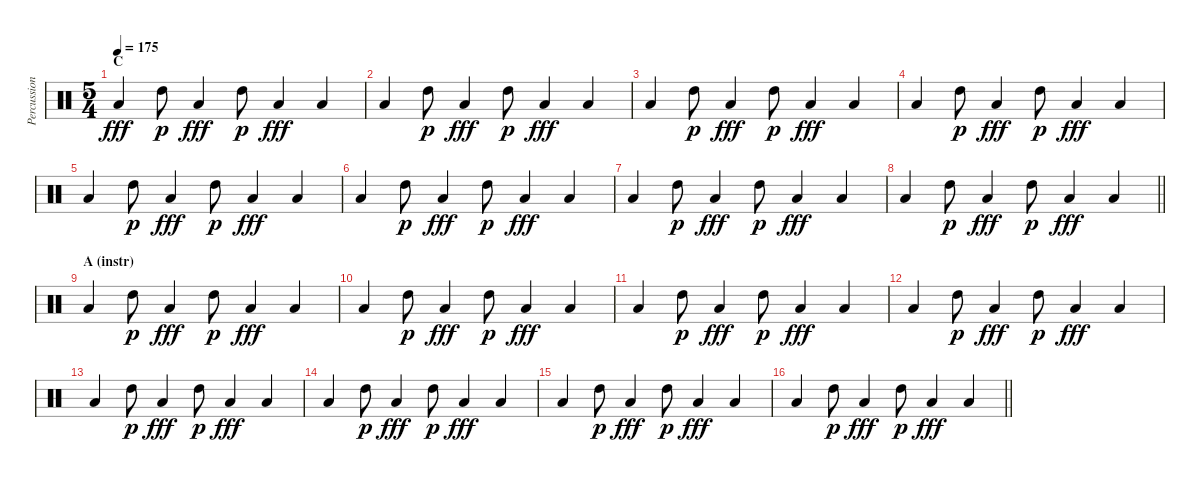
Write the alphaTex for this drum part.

\track ("Percussion" "Percussion") {instrument percussion}
\staff {score}
\articulation defaults
\ts (5 4)
\section ("" "C")
\tempo 175
\clef neutral
\ks c "Low Tom (hit)".4{dy fff} "High Tom (hit)".8{dy p} "Low Tom (hit)".4{dy fff} "High Tom (hit)".8{dy p} "Low Tom (hit)".4{dy fff} "Low Tom (hit)".4
|
"Low Tom (hit)".4 "High Tom (hit)".8{dy p} "Low Tom (hit)".4{dy fff} "High Tom (hit)".8{dy p} "Low Tom (hit)".4{dy fff} "Low Tom (hit)".4 |
"Low Tom (hit)".4 "High Tom (hit)".8{dy p} "Low Tom (hit)".4{dy fff} "High Tom (hit)".8{dy p} "Low Tom (hit)".4{dy fff} "Low Tom (hit)".4 |
"Low Tom (hit)".4 "High Tom (hit)".8{dy p} "Low Tom (hit)".4{dy fff} "High Tom (hit)".8{dy p} "Low Tom (hit)".4{dy fff} "Low Tom (hit)".4 |
"Low Tom (hit)".4 "High Tom (hit)".8{dy p} "Low Tom (hit)".4{dy fff} "High Tom (hit)".8{dy p} "Low Tom (hit)".4{dy fff} "Low Tom (hit)".4 |
"Low Tom (hit)".4 "High Tom (hit)".8{dy p} "Low Tom (hit)".4{dy fff} "High Tom (hit)".8{dy p} "Low Tom (hit)".4{dy fff} "Low Tom (hit)".4 |
"Low Tom (hit)".4 "High Tom (hit)".8{dy p} "Low Tom (hit)".4{dy fff} "High Tom (hit)".8{dy p} "Low Tom (hit)".4{dy fff} "Low Tom (hit)".4 |
\barLineRight lightlight "Low Tom (hit)".4 "High Tom (hit)".8{dy p} "Low Tom (hit)".4{dy fff} "High Tom (hit)".8{dy p} "Low Tom (hit)".4{dy fff} "Low Tom (hit)".4
|
\section ("" "A (instr)")
"Low Tom (hit)".4 "High Tom (hit)".8{dy p} "Low Tom (hit)".4{dy fff} "High Tom (hit)".8{dy p} "Low Tom (hit)".4{dy fff} "Low Tom (hit)".4 |
"Low Tom (hit)".4 "High Tom (hit)".8{dy p} "Low Tom (hit)".4{dy fff} "High Tom (hit)".8{dy p} "Low Tom (hit)".4{dy fff} "Low Tom (hit)".4 |
"Low Tom (hit)".4 "High Tom (hit)".8{dy p} "Low Tom (hit)".4{dy fff} "High Tom (hit)".8{dy p} "Low Tom (hit)".4{dy fff} "Low Tom (hit)".4 |
"Low Tom (hit)".4 "High Tom (hit)".8{dy p} "Low Tom (hit)".4{dy fff} "High Tom (hit)".8{dy p} "Low Tom (hit)".4{dy fff} "Low Tom (hit)".4 |
"Low Tom (hit)".4 "High Tom (hit)".8{dy p} "Low Tom (hit)".4{dy fff} "High Tom (hit)".8{dy p} "Low Tom (hit)".4{dy fff} "Low Tom (hit)".4 |
"Low Tom (hit)".4 "High Tom (hit)".8{dy p} "Low Tom (hit)".4{dy fff} "High Tom (hit)".8{dy p} "Low Tom (hit)".4{dy fff} "Low Tom (hit)".4 |
"Low Tom (hit)".4 "High Tom (hit)".8{dy p} "Low Tom (hit)".4{dy fff} "High Tom (hit)".8{dy p} "Low Tom (hit)".4{dy fff} "Low Tom (hit)".4 |
\barLineRight lightlight "Low Tom (hit)".4 "High Tom (hit)".8{dy p} "Low Tom (hit)".4{dy fff} "High Tom (hit)".8{dy p} "Low Tom (hit)".4{dy fff} "Low Tom (hit)".4
